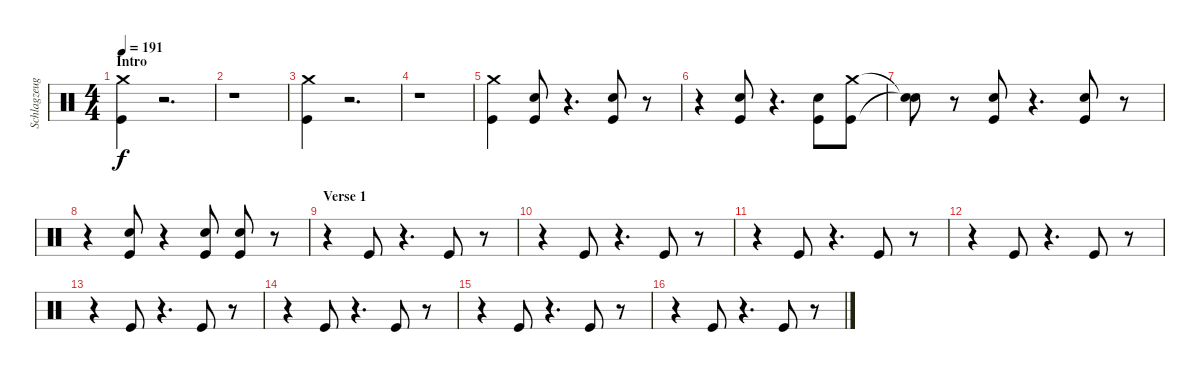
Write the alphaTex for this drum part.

\track ("Schlagzeug - Bela B." "Schlagzeug") {instrument percussion}
\staff {score}
\articulation defaults
\ts (4 4)
\section ("" "Intro")
\tempo 191
\clef neutral
\ks c
("Kick (hit)" "Crash medium (hit)").4{dy f} r.2{d} |
r.1 |
("Kick (hit)" "Crash medium (hit)").4 r.2{d} |
r.1 |
("Kick (hit)" "Crash medium (hit)").4 ("Kick (hit)" "Electric Snare (hit)").8 r.4{d} ("Electric Snare (hit)" "Kick (hit)").8 r.8 |
r.4 ("Kick (hit)" "Electric Snare (hit)").8 r.4{d} ("Electric Snare (hit)" "Kick (hit)").8 ("Kick (hit)" "Crash medium (hit)").8 |
("Snare (hit)"{t} "Snare (hit)"{t}).8 r.8 ("Kick (hit)" "Electric Snare (hit)").8 r.4{d} ("Electric Snare (hit)" "Kick (hit)").8 r.8 |
r.4 ("Kick (hit)" "Electric Snare (hit)").8 r.4 ("Kick (hit)" "Electric Snare (hit)").8 ("Electric Snare (hit)" "Kick (hit)").8 r.8 |
\section ("" "Verse 1")
r.4 "Kick (hit)".8 r.4{d} "Kick (hit)".8 r.8 |
r.4 "Kick (hit)".8 r.4{d} "Kick (hit)".8 r.8 |
r.4 "Kick (hit)".8 r.4{d} "Kick (hit)".8 r.8 |
r.4 "Kick (hit)".8 r.4{d} "Kick (hit)".8 r.8 |
r.4 "Kick (hit)".8 r.4{d} "Kick (hit)".8 r.8 |
r.4 "Kick (hit)".8 r.4{d} "Kick (hit)".8 r.8 |
r.4 "Kick (hit)".8 r.4{d} "Kick (hit)".8 r.8 |
r.4 "Kick (hit)".8 r.4{d} "Kick (hit)".8 r.8
